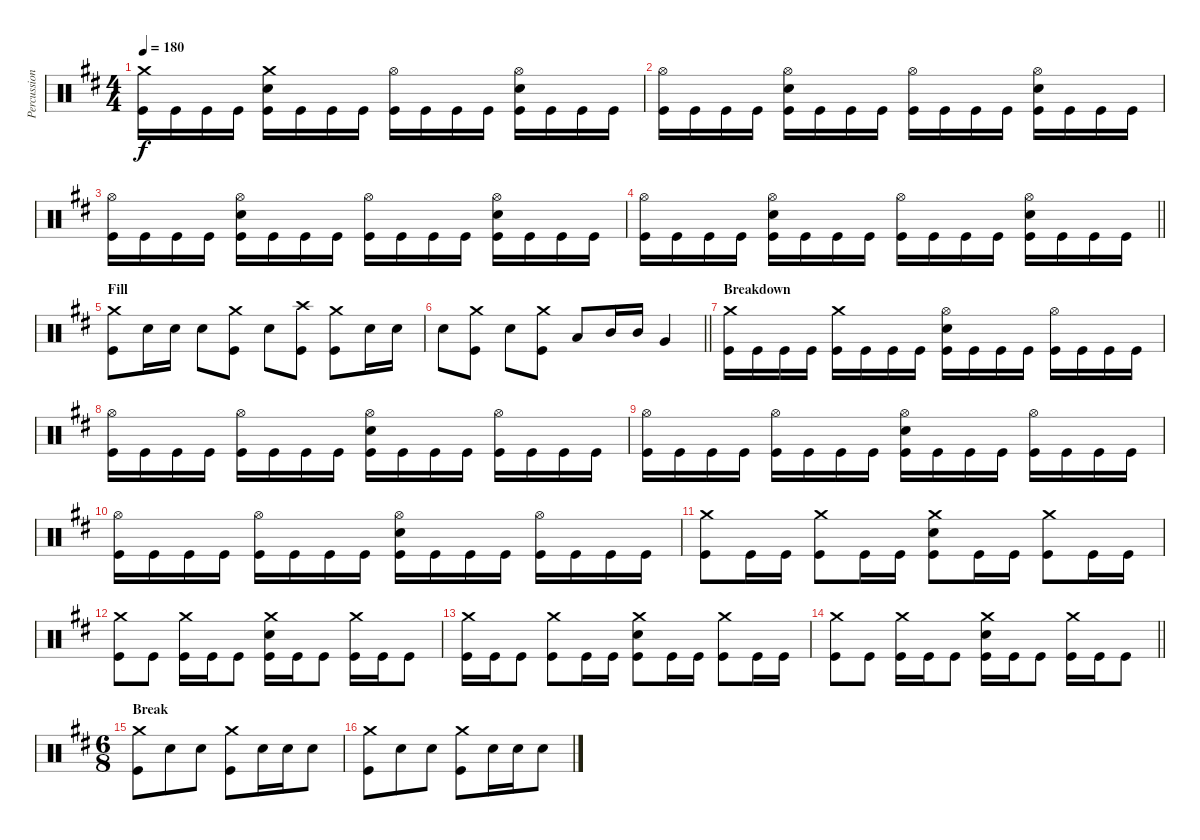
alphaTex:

\track ("Percussion" "Percussion") {instrument percussion}
\staff {score}
\articulation defaults
\ts (4 4)
\tempo 180
\clef neutral
\ks d
("Crash medium (hit)" "Kick (hit)").16{dy f} "Kick (hit)".16 "Kick (hit)".16 "Kick (hit)".16 ("Crash medium (hit)" "Electric Snare (hit)" "Kick (hit)").16 "Kick (hit)".16 "Kick (hit)".16 "Kick (hit)".16 ("Hi-Hat (open)" "Kick (hit)").16 "Kick (hit)".16 "Kick (hit)".16 "Kick (hit)".16 ("Hi-Hat (open)" "Electric Snare (hit)" "Kick (hit)").16 "Kick (hit)".16 "Kick (hit)".16 "Kick (hit)".16 |
("Hi-Hat (open)" "Kick (hit)").16 "Kick (hit)".16 "Kick (hit)".16 "Kick (hit)".16 ("Hi-Hat (open)" "Electric Snare (hit)" "Kick (hit)").16 "Kick (hit)".16 "Kick (hit)".16 "Kick (hit)".16 ("Hi-Hat (open)" "Kick (hit)").16 "Kick (hit)".16 "Kick (hit)".16 "Kick (hit)".16 ("Hi-Hat (open)" "Electric Snare (hit)" "Kick (hit)").16 "Kick (hit)".16 "Kick (hit)".16 "Kick (hit)".16 |
("Hi-Hat (open)" "Kick (hit)").16 "Kick (hit)".16 "Kick (hit)".16 "Kick (hit)".16 ("Hi-Hat (open)" "Electric Snare (hit)" "Kick (hit)").16 "Kick (hit)".16 "Kick (hit)".16 "Kick (hit)".16 ("Hi-Hat (open)" "Kick (hit)").16 "Kick (hit)".16 "Kick (hit)".16 "Kick (hit)".16 ("Hi-Hat (open)" "Electric Snare (hit)" "Kick (hit)").16 "Kick (hit)".16 "Kick (hit)".16 "Kick (hit)".16 |
\barLineRight lightlight
("Hi-Hat (open)" "Kick (hit)").16 "Kick (hit)".16 "Kick (hit)".16 "Kick (hit)".16 ("Hi-Hat (open)" "Electric Snare (hit)" "Kick (hit)").16 "Kick (hit)".16 "Kick (hit)".16 "Kick (hit)".16 ("Hi-Hat (open)" "Kick (hit)").16 "Kick (hit)".16 "Kick (hit)".16 "Kick (hit)".16 ("Hi-Hat (open)" "Electric Snare (hit)" "Kick (hit)").16 "Kick (hit)".16 "Kick (hit)".16 "Kick (hit)".16 |
\section ("" "Fill")
("Crash medium (hit)" "Kick (hit)").8 "Electric Snare (hit)".16 "Electric Snare (hit)".16 "Electric Snare (hit)".8 ("Crash medium (hit)" "Kick (hit)").8 "Electric Snare (hit)".8 ("Crash high (hit)" "Kick (hit)").8 ("Crash medium (hit)" "Kick (hit)").8 "Electric Snare (hit)".16 "Electric Snare (hit)".16 |
\barLineRight lightlight "Electric Snare (hit)".8
("Crash medium (hit)" "Kick (hit)").8 "Electric Snare (hit)".8 ("Crash medium (hit)" "Kick (hit)").8 "Low Floor Tom (hit)".8 "Mid Tom (hit)".16 "Mid Tom (hit)".16 "Very Low Tom (hit)".4 |
\section ("" "Breakdown")
("Crash medium (hit)" "Kick (hit)").16 "Kick (hit)".16 "Kick (hit)".16 "Kick (hit)".16 ("Crash medium (hit)" "Kick (hit)").16 "Kick (hit)".16 "Kick (hit)".16 "Kick (hit)".16 ("Hi-Hat (open)" "Electric Snare (hit)" "Kick (hit)").16 "Kick (hit)".16 "Kick (hit)".16 "Kick (hit)".16 ("Hi-Hat (open)" "Kick (hit)").16 "Kick (hit)".16 "Kick (hit)".16 "Kick (hit)".16 |
("Hi-Hat (open)" "Kick (hit)").16 "Kick (hit)".16 "Kick (hit)".16 "Kick (hit)".16 ("Hi-Hat (open)" "Kick (hit)").16 "Kick (hit)".16 "Kick (hit)".16 "Kick (hit)".16 ("Hi-Hat (open)" "Electric Snare (hit)" "Kick (hit)").16 "Kick (hit)".16 "Kick (hit)".16 "Kick (hit)".16 ("Hi-Hat (open)" "Kick (hit)").16 "Kick (hit)".16 "Kick (hit)".16 "Kick (hit)".16 |
("Hi-Hat (open)" "Kick (hit)").16 "Kick (hit)".16 "Kick (hit)".16 "Kick (hit)".16 ("Hi-Hat (open)" "Kick (hit)").16 "Kick (hit)".16 "Kick (hit)".16 "Kick (hit)".16 ("Hi-Hat (open)" "Electric Snare (hit)" "Kick (hit)").16 "Kick (hit)".16 "Kick (hit)".16 "Kick (hit)".16 ("Hi-Hat (open)" "Kick (hit)").16 "Kick (hit)".16 "Kick (hit)".16 "Kick (hit)".16 |
("Hi-Hat (open)" "Kick (hit)").16 "Kick (hit)".16 "Kick (hit)".16 "Kick (hit)".16 ("Hi-Hat (open)" "Kick (hit)").16 "Kick (hit)".16 "Kick (hit)".16 "Kick (hit)".16 ("Hi-Hat (open)" "Electric Snare (hit)" "Kick (hit)").16 "Kick (hit)".16 "Kick (hit)".16 "Kick (hit)".16 ("Hi-Hat (open)" "Kick (hit)").16 "Kick (hit)".16 "Kick (hit)".16 "Kick (hit)".16 |
("Crash medium (hit)" "Kick (hit)").8 "Kick (hit)".16 "Kick (hit)".16 ("Crash medium (hit)" "Kick (hit)").8 "Kick (hit)".16 "Kick (hit)".16 ("Crash medium (hit)" "Electric Snare (hit)" "Kick (hit)").8 "Kick (hit)".16 "Kick (hit)".16 ("Crash medium (hit)" "Kick (hit)").8 "Kick (hit)".16 "Kick (hit)".16 |
("Crash medium (hit)" "Kick (hit)").8 "Kick (hit)".8 ("Crash medium (hit)" "Kick (hit)").16 "Kick (hit)".16 "Kick (hit)".8 ("Crash medium (hit)" "Electric Snare (hit)" "Kick (hit)").16 "Kick (hit)".16 "Kick (hit)".8 ("Crash medium (hit)" "Kick (hit)").16 "Kick (hit)".16 "Kick (hit)".8 |
("Crash medium (hit)" "Kick (hit)").16 "Kick (hit)".16 "Kick (hit)".8 ("Crash medium (hit)" "Kick (hit)").8 "Kick (hit)".16 "Kick (hit)".16 ("Crash medium (hit)" "Electric Snare (hit)" "Kick (hit)").8 "Kick (hit)".16 "Kick (hit)".16 ("Crash medium (hit)" "Kick (hit)").8 "Kick (hit)".16 "Kick (hit)".16 |
\barLineRight lightlight
("Crash medium (hit)" "Kick (hit)").8 "Kick (hit)".8 ("Crash medium (hit)" "Kick (hit)").16 "Kick (hit)".16 "Kick (hit)".8 ("Crash medium (hit)" "Electric Snare (hit)" "Kick (hit)").16 "Kick (hit)".16 "Kick (hit)".8 ("Crash medium (hit)" "Kick (hit)").16 "Kick (hit)".16 "Kick (hit)".8 |
\ts (6 8)
\section ("" "Break")
("Crash medium (hit)" "Kick (hit)").8 "Electric Snare (hit)".8 "Electric Snare (hit)".8 ("Crash medium (hit)" "Kick (hit)").8 "Electric Snare (hit)".16 "Electric Snare (hit)".16 "Electric Snare (hit)".8 |
("Crash medium (hit)" "Kick (hit)").8 "Electric Snare (hit)".8 "Electric Snare (hit)".8 ("Crash medium (hit)" "Kick (hit)").8 "Electric Snare (hit)".16 "Electric Snare (hit)".16 "Electric Snare (hit)".8
